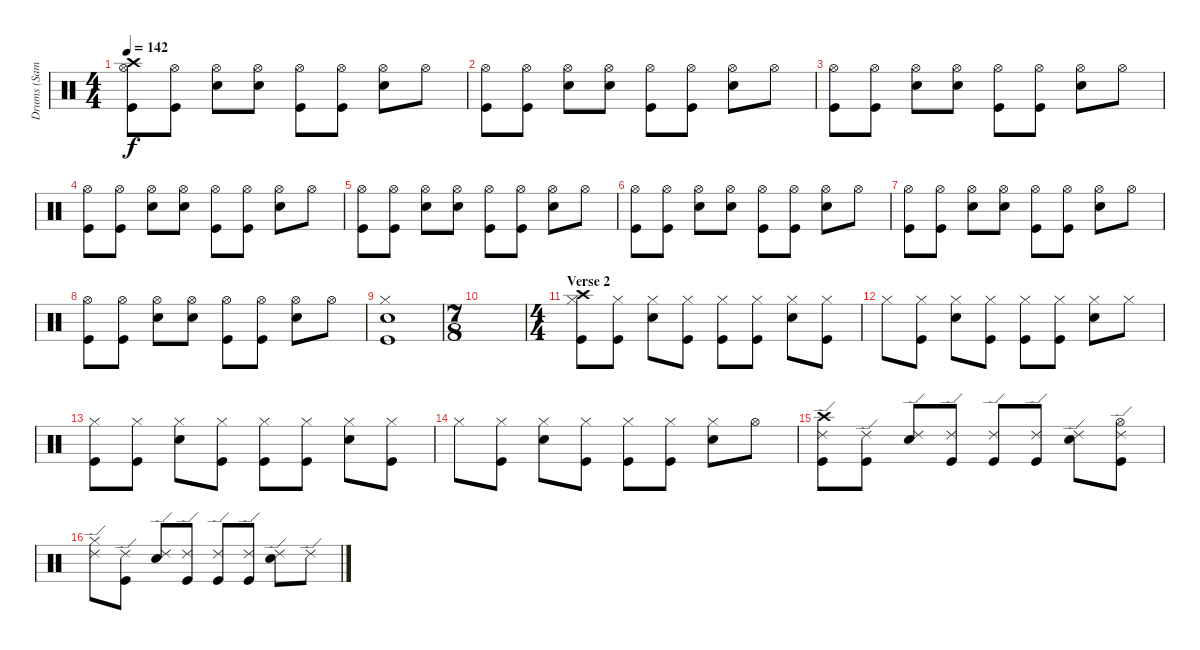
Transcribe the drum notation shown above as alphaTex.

\track ("Drums (Sam)" "Drums (Sam") {instrument percussion}
\staff {score}
\articulation defaults
\ts (4 4)
\tempo 142
\clef neutral
\ks c
("Crash high (hit)" "Hi-Hat (open)" "Kick (hit)").8{dy f} ("Hi-Hat (open)" "Kick (hit)").8 ("Hi-Hat (open)" "Snare (hit) 2").8 ("Hi-Hat (open)" "Snare (hit) 2").8 ("Hi-Hat (open)" "Kick (hit)").8 ("Hi-Hat (open)" "Kick (hit)").8 ("Hi-Hat (open)" "Snare (hit) 2").8 "Hi-Hat (open)".8 |
("Hi-Hat (open)" "Kick (hit)").8 ("Hi-Hat (open)" "Kick (hit)").8 ("Hi-Hat (open)" "Snare (hit) 2").8 ("Hi-Hat (open)" "Snare (hit) 2").8 ("Hi-Hat (open)" "Kick (hit)").8 ("Hi-Hat (open)" "Kick (hit)").8 ("Hi-Hat (open)" "Snare (hit) 2").8 "Hi-Hat (open)".8 |
("Hi-Hat (open)" "Kick (hit)").8 ("Hi-Hat (open)" "Kick (hit)").8 ("Hi-Hat (open)" "Snare (hit) 2").8 ("Hi-Hat (open)" "Snare (hit) 2").8 ("Hi-Hat (open)" "Kick (hit)").8 ("Hi-Hat (open)" "Kick (hit)").8 ("Hi-Hat (open)" "Snare (hit) 2").8 "Hi-Hat (open)".8 |
("Hi-Hat (open)" "Kick (hit)").8 ("Hi-Hat (open)" "Kick (hit)").8 ("Hi-Hat (open)" "Snare (hit) 2").8 ("Hi-Hat (open)" "Snare (hit) 2").8 ("Hi-Hat (open)" "Kick (hit)").8 ("Hi-Hat (open)" "Kick (hit)").8 ("Hi-Hat (open)" "Snare (hit) 2").8 "Hi-Hat (open)".8 |
("Hi-Hat (open)" "Kick (hit)").8 ("Hi-Hat (open)" "Kick (hit)").8 ("Hi-Hat (open)" "Snare (hit) 2").8 ("Hi-Hat (open)" "Snare (hit) 2").8 ("Hi-Hat (open)" "Kick (hit)").8 ("Hi-Hat (open)" "Kick (hit)").8 ("Hi-Hat (open)" "Snare (hit) 2").8 "Hi-Hat (open)".8 |
("Hi-Hat (open)" "Kick (hit)").8 ("Hi-Hat (open)" "Kick (hit)").8 ("Hi-Hat (open)" "Snare (hit) 2").8 ("Hi-Hat (open)" "Snare (hit) 2").8 ("Hi-Hat (open)" "Kick (hit)").8 ("Hi-Hat (open)" "Kick (hit)").8 ("Hi-Hat (open)" "Snare (hit) 2").8 "Hi-Hat (open)".8 |
("Hi-Hat (open)" "Kick (hit)").8 ("Hi-Hat (open)" "Kick (hit)").8 ("Hi-Hat (open)" "Snare (hit) 2").8 ("Hi-Hat (open)" "Snare (hit) 2").8 ("Hi-Hat (open)" "Kick (hit)").8 ("Hi-Hat (open)" "Kick (hit)").8 ("Hi-Hat (open)" "Snare (hit) 2").8 "Hi-Hat (open)".8 |
("Hi-Hat (open)" "Kick (hit)").8 ("Hi-Hat (open)" "Kick (hit)").8 ("Hi-Hat (open)" "Snare (hit) 2").8 ("Hi-Hat (open)" "Snare (hit) 2").8 ("Hi-Hat (open)" "Kick (hit)").8 ("Hi-Hat (open)" "Kick (hit)").8 ("Hi-Hat (open)" "Snare (hit) 2").8 "Hi-Hat (open)".8 |
("Hi-Hat (closed)" "Snare (hit) 2" "Kick (hit)").1 |
\ts (7 8)
|
\ts (4 4)
\section ("" "Verse 2")
("Crash high (hit)" "Hi-Hat (closed)" "Kick (hit)").8 ("Hi-Hat (closed)" "Kick (hit)").8 ("Hi-Hat (closed)" "Snare (hit) 2").8 ("Hi-Hat (closed)" "Kick (hit)").8 ("Hi-Hat (closed)" "Kick (hit)").8 ("Hi-Hat (closed)" "Kick (hit)").8 ("Hi-Hat (closed)" "Snare (hit) 2").8 ("Hi-Hat (closed)" "Kick (hit)").8 |
"Hi-Hat (closed)".8 ("Hi-Hat (closed)" "Kick (hit)").8 ("Hi-Hat (closed)" "Snare (hit) 2").8 ("Hi-Hat (closed)" "Kick (hit)").8 ("Hi-Hat (closed)" "Kick (hit)").8 ("Hi-Hat (closed)" "Kick (hit)").8 ("Hi-Hat (closed)" "Snare (hit) 2").8 "Hi-Hat (closed)".8 |
("Hi-Hat (closed)" "Kick (hit)").8 ("Hi-Hat (closed)" "Kick (hit)").8 ("Hi-Hat (closed)" "Snare (hit) 2").8 ("Hi-Hat (closed)" "Kick (hit)").8 ("Hi-Hat (closed)" "Kick (hit)").8 ("Hi-Hat (closed)" "Kick (hit)").8 ("Hi-Hat (closed)" "Snare (hit) 2").8 ("Hi-Hat (closed)" "Kick (hit)").8 |
"Hi-Hat (closed)".8 ("Hi-Hat (closed)" "Kick (hit)").8 ("Hi-Hat (closed)" "Snare (hit) 2").8 ("Hi-Hat (closed)" "Kick (hit)").8 ("Hi-Hat (closed)" "Kick (hit)").8 ("Hi-Hat (closed)" "Kick (hit)").8 ("Hi-Hat (closed)" "Snare (hit) 2").8 "Hi-Hat (open)".8 |
("Crash high (hit)" "Ride (edge) 2" "Kick (hit)").8 ("Ride (edge) 2" "Kick (hit)").8 ("Ride (edge) 2" "Snare (hit) 2").8 ("Ride (edge) 2" "Kick (hit)").8 ("Ride (edge) 2" "Kick (hit)").8 ("Ride (edge) 2" "Kick (hit)").8 ("Ride (edge) 2" "Snare (hit) 2").8 ("Hi-Hat (open)" "Ride (edge) 2" "Kick (hit)").8 |
("Hi-Hat (closed)" "Ride (edge) 2").8 ("Ride (edge) 2" "Kick (hit)").8 ("Ride (edge) 2" "Snare (hit) 2").8 ("Ride (edge) 2" "Kick (hit)").8 ("Ride (edge) 2" "Kick (hit)").8 ("Ride (edge) 2" "Kick (hit)").8 ("Ride (edge) 2" "Snare (hit) 2").8 "Ride (edge) 2".8
